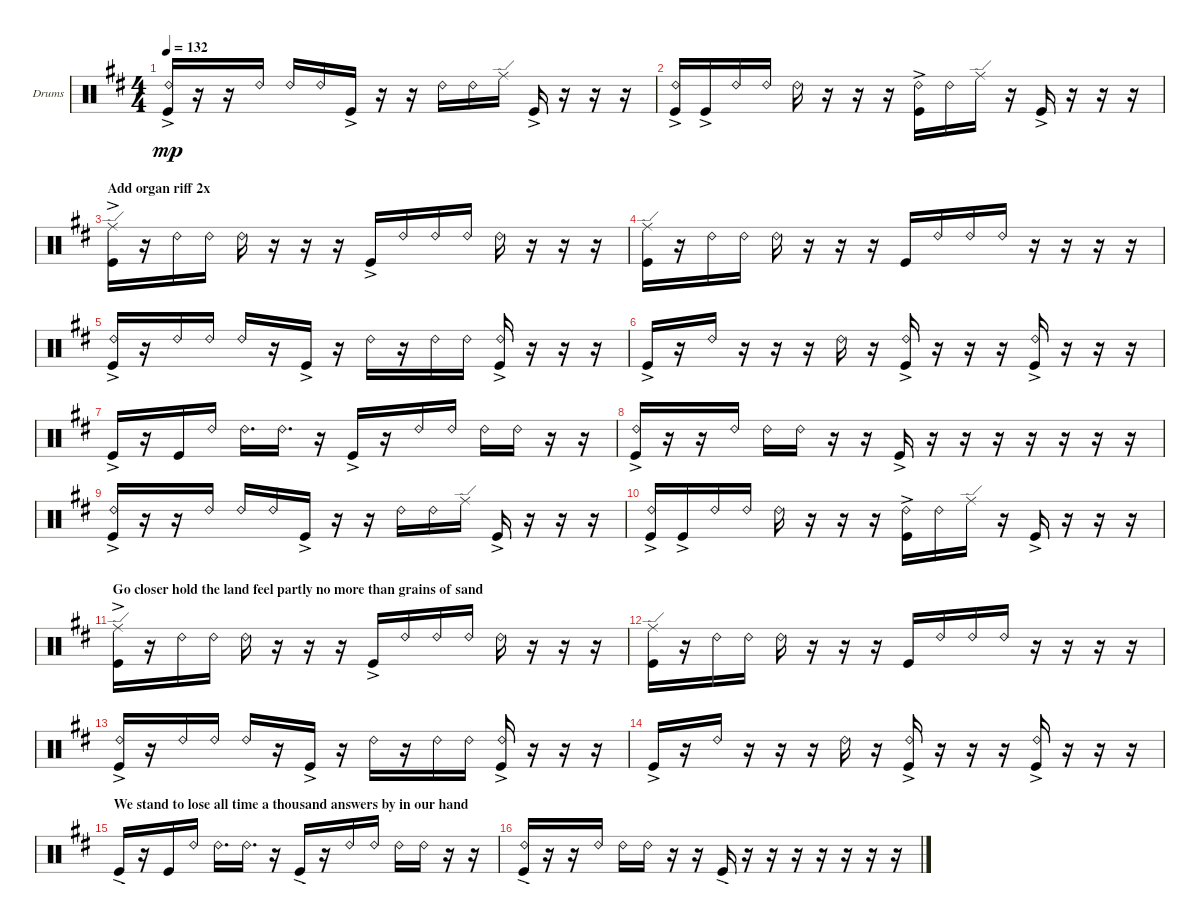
\bracketExtendMode groupsimilarinstruments
\firstSystemTrackNameOrientation horizontal
\otherSystemsTrackNameOrientation horizontal
\track ("Drumkit" "Drums") {instrument percussion}
\staff {score}
\articulation defaults
\ts (4 4)
\tempo 132
\clef neutral
\ks bminor
("Ride (bell) 2" "Kick (hit)"{ac}).16{dy mp} r.16 r.16 "Ride (bell) 2".16 "Ride (bell) 2".16 "Ride (bell) 2".16 "Kick (hit)"{ac}.16 r.16 r.16 "Ride (bell) 2".16 "Ride (bell) 2".16 "Ride (edge)".16 "Kick (hit)"{ac}.16 r.16 r.16 r.16 |
("Ride (bell) 2" "Kick (hit)"{ac}).16 "Kick (hit)"{ac}.16 "Ride (bell) 2".16 "Ride (bell) 2".16 "Ride (bell) 2".16 r.16 r.16 r.16 ("Ride (bell) 2" "Kick (hit)"{ac}).16 "Ride (bell) 2".16 "Ride (edge)".16 r.16 "Kick (hit)"{ac}.16 r.16 r.16 r.16 |
\section ("" "Add organ riff 2x")
("Ride (edge)" "Kick (hit)"{ac}).16 r.16 "Ride (bell) 2".16 "Ride (bell) 2".16 "Ride (bell) 2".16 r.16 r.16 r.16 "Kick (hit)"{ac}.16 "Ride (bell) 2".16 "Ride (bell) 2".16 "Ride (bell) 2".16 "Ride (bell) 2".16 r.16 r.16 r.16 |
("Ride (edge)" "Kick (hit)").16 r.16 "Ride (bell) 2".16 "Ride (bell) 2".16 "Ride (bell) 2".16 r.16 r.16 r.16 "Kick (hit)".16 "Ride (bell) 2".16 "Ride (bell) 2".16 "Ride (bell) 2".16 r.16 r.16 r.16 r.16 |
("Ride (bell) 2" "Kick (hit)"{ac}).16 r.16 "Ride (bell) 2".16 "Ride (bell) 2".16 "Ride (bell) 2".16 r.16 "Kick (hit)"{ac}.16 r.16 "Ride (bell) 2".16 r.16 "Ride (bell) 2".16 "Ride (bell) 2".16 ("Ride (bell) 2" "Kick (hit)"{ac}).16 r.16 r.16 r.16 |
"Kick (hit)"{ac}.16 r.16 "Ride (bell) 2".16 r.16 r.16 r.16 "Ride (bell) 2".16 r.16 ("Ride (bell) 2" "Kick (hit)"{ac}).16 r.16 r.16 r.16 ("Ride (bell) 2" "Kick (hit)"{ac}).16 r.16 r.16 r.16 |
"Kick (hit)"{ac}.16 r.16 "Kick (hit)".16 "Ride (bell) 2".16 "Ride (bell) 2".16{d} "Ride (bell) 2".16{d} r.16 "Kick (hit)"{ac}.16 r.16 "Ride (bell) 2".16 "Ride (bell) 2".16 "Ride (bell) 2".16 "Ride (bell) 2".16 r.16 r.16 |
("Ride (bell) 2" "Kick (hit)"{ac}).16 r.16 r.16 "Ride (bell) 2".16 "Ride (bell) 2".16 "Ride (bell) 2".16 r.16 r.16 "Kick (hit)"{ac}.16 r.16 r.16 r.16 r.16 r.16 r.16 r.16 |
("Ride (bell) 2" "Kick (hit)"{ac}).16 r.16 r.16 "Ride (bell) 2".16 "Ride (bell) 2".16 "Ride (bell) 2".16 "Kick (hit)"{ac}.16 r.16 r.16 "Ride (bell) 2".16 "Ride (bell) 2".16 "Ride (edge)".16 "Kick (hit)"{ac}.16 r.16 r.16 r.16 |
("Ride (bell) 2" "Kick (hit)"{ac}).16 "Kick (hit)"{ac}.16 "Ride (bell) 2".16 "Ride (bell) 2".16 "Ride (bell) 2".16 r.16 r.16 r.16 ("Ride (bell) 2" "Kick (hit)"{ac}).16 "Ride (bell) 2".16 "Ride (edge)".16 r.16 "Kick (hit)"{ac}.16 r.16 r.16 r.16 |
\section ("" "Go closer hold the land feel partly no more than grains of sand")
("Ride (edge)" "Kick (hit)"{ac}).16 r.16 "Ride (bell) 2".16 "Ride (bell) 2".16 "Ride (bell) 2".16 r.16 r.16 r.16 "Kick (hit)"{ac}.16 "Ride (bell) 2".16 "Ride (bell) 2".16 "Ride (bell) 2".16 "Ride (bell) 2".16 r.16 r.16 r.16 |
("Ride (edge)" "Kick (hit)").16 r.16 "Ride (bell) 2".16 "Ride (bell) 2".16 "Ride (bell) 2".16 r.16 r.16 r.16 "Kick (hit)".16 "Ride (bell) 2".16 "Ride (bell) 2".16 "Ride (bell) 2".16 r.16 r.16 r.16 r.16 |
("Ride (bell) 2" "Kick (hit)"{ac}).16 r.16 "Ride (bell) 2".16 "Ride (bell) 2".16 "Ride (bell) 2".16 r.16 "Kick (hit)"{ac}.16 r.16 "Ride (bell) 2".16 r.16 "Ride (bell) 2".16 "Ride (bell) 2".16 ("Ride (bell) 2" "Kick (hit)"{ac}).16 r.16 r.16 r.16 |
"Kick (hit)"{ac}.16 r.16 "Ride (bell) 2".16 r.16 r.16 r.16 "Ride (bell) 2".16 r.16 ("Ride (bell) 2" "Kick (hit)"{ac}).16 r.16 r.16 r.16 ("Ride (bell) 2" "Kick (hit)"{ac}).16 r.16 r.16 r.16 |
\section ("" "We stand to lose all time a thousand answers by in our hand")
"Kick (hit)"{ac}.16 r.16 "Kick (hit)".16 "Ride (bell) 2".16 "Ride (bell) 2".16{d} "Ride (bell) 2".16{d} r.16 "Kick (hit)"{ac}.16 r.16 "Ride (bell) 2".16 "Ride (bell) 2".16 "Ride (bell) 2".16 "Ride (bell) 2".16 r.16 r.16 |
("Ride (bell) 2" "Kick (hit)"{ac}).16 r.16 r.16 "Ride (bell) 2".16 "Ride (bell) 2".16 "Ride (bell) 2".16 r.16 r.16 "Kick (hit)"{ac}.16 r.16 r.16 r.16 r.16 r.16 r.16 r.16
